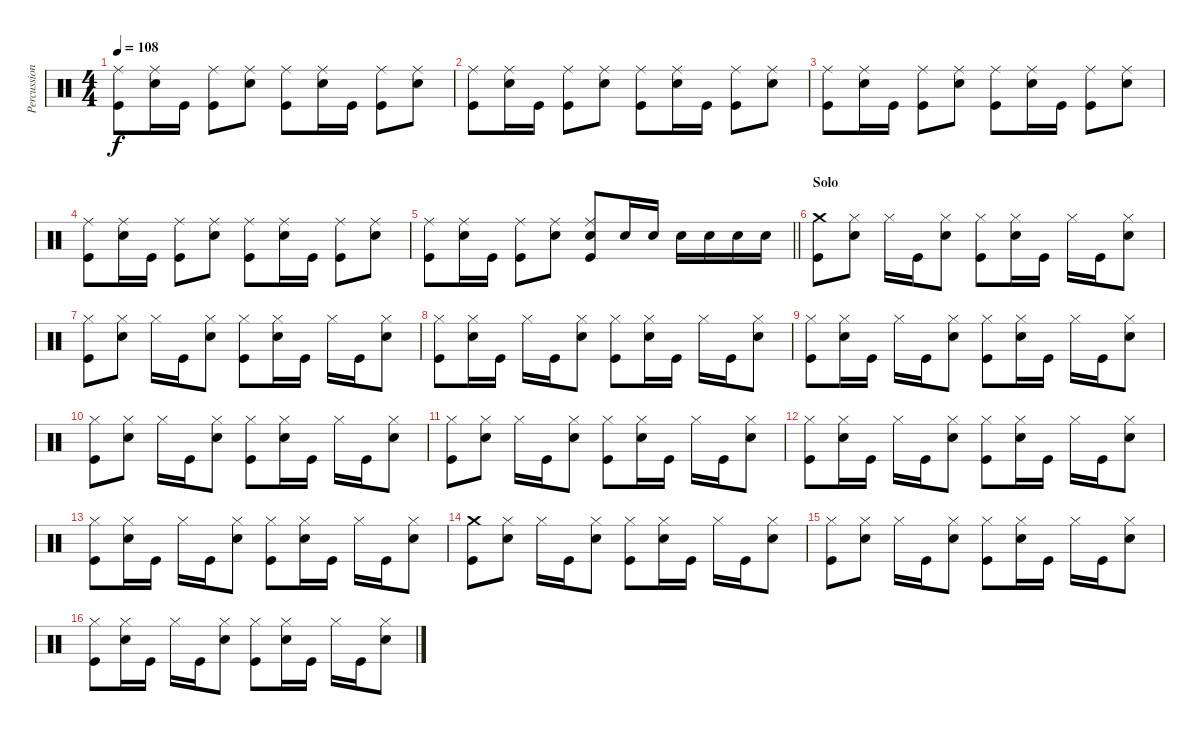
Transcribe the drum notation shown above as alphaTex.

\track ("Percussion" "Percussion") {instrument percussion}
\staff {score}
\articulation defaults
\ts (4 4)
\tempo 108
\clef neutral
\ks c
("Kick (hit)" "Ride (middle)").8{dy f} ("Ride (middle)" "Snare (hit) 2").16 "Kick (hit)".16 ("Kick (hit)" "Ride (middle)").8 ("Ride (middle)" "Snare (hit) 2").8 ("Kick (hit)" "Ride (middle)").8 ("Ride (middle)" "Snare (hit) 2").16 "Kick (hit)".16 ("Kick (hit)" "Ride (middle)").8 ("Ride (middle)" "Snare (hit) 2").8 |
("Kick (hit)" "Ride (middle)").8 ("Ride (middle)" "Snare (hit) 2").16 "Kick (hit)".16 ("Kick (hit)" "Ride (middle)").8 ("Ride (middle)" "Snare (hit) 2").8 ("Kick (hit)" "Ride (middle)").8 ("Ride (middle)" "Snare (hit) 2").16 "Kick (hit)".16 ("Kick (hit)" "Ride (middle)").8 ("Ride (middle)" "Snare (hit) 2").8 |
("Kick (hit)" "Ride (middle)").8 ("Ride (middle)" "Snare (hit) 2").16 "Kick (hit)".16 ("Kick (hit)" "Ride (middle)").8 ("Ride (middle)" "Snare (hit) 2").8 ("Kick (hit)" "Ride (middle)").8 ("Ride (middle)" "Snare (hit) 2").16 "Kick (hit)".16 ("Kick (hit)" "Ride (middle)").8 ("Ride (middle)" "Snare (hit) 2").8 |
("Kick (hit)" "Ride (middle)").8 ("Ride (middle)" "Snare (hit) 2").16 "Kick (hit)".16 ("Kick (hit)" "Ride (middle)").8 ("Ride (middle)" "Snare (hit) 2").8 ("Kick (hit)" "Ride (middle)").8 ("Ride (middle)" "Snare (hit) 2").16 "Kick (hit)".16 ("Kick (hit)" "Ride (middle)").8 ("Ride (middle)" "Snare (hit) 2").8 |
\barLineRight lightlight
("Kick (hit)" "Ride (middle)").8 ("Ride (middle)" "Snare (hit) 2").16 "Kick (hit)".16 ("Kick (hit)" "Ride (middle)").8 ("Ride (middle)" "Snare (hit) 2").8 ("Kick (hit)" "Ride (middle)" "Snare (hit) 2").8 "Snare (hit) 2".16 "Snare (hit) 2".16 "Snare (hit) 2".16 "Snare (hit) 2".16 "Snare (hit) 2".16 "Snare (hit) 2".16 |
\section ("" "Solo")
("Kick (hit)" "Crash medium (hit)").8 ("Hi-Hat (closed)" "Snare (hit) 2").8 "Hi-Hat (closed)".16 "Kick (hit)".16 ("Hi-Hat (closed)" "Snare (hit) 2").8 ("Kick (hit)" "Hi-Hat (closed)").8 ("Hi-Hat (closed)" "Snare (hit) 2").16 "Kick (hit)".16 "Hi-Hat (closed)".16 "Kick (hit)".16 ("Hi-Hat (closed)" "Snare (hit) 2").8 |
("Kick (hit)" "Hi-Hat (closed)").8 ("Hi-Hat (closed)" "Snare (hit) 2").8 "Hi-Hat (closed)".16 "Kick (hit)".16 ("Hi-Hat (closed)" "Snare (hit) 2").8 ("Kick (hit)" "Hi-Hat (closed)").8 ("Hi-Hat (closed)" "Snare (hit) 2").16 "Kick (hit)".16 "Hi-Hat (closed)".16 "Kick (hit)".16 ("Hi-Hat (closed)" "Snare (hit) 2").8 |
("Kick (hit)" "Hi-Hat (closed)").8 ("Hi-Hat (closed)" "Snare (hit) 2").16 "Kick (hit)".16 "Hi-Hat (closed)".16 "Kick (hit)".16 ("Hi-Hat (closed)" "Snare (hit) 2").8 ("Kick (hit)" "Hi-Hat (closed)").8 ("Hi-Hat (closed)" "Snare (hit) 2").16 "Kick (hit)".16 "Hi-Hat (closed)".16 "Kick (hit)".16 ("Hi-Hat (closed)" "Snare (hit) 2").8 |
("Kick (hit)" "Hi-Hat (closed)").8 ("Hi-Hat (closed)" "Snare (hit) 2").16 "Kick (hit)".16 "Hi-Hat (closed)".16 "Kick (hit)".16 ("Hi-Hat (closed)" "Snare (hit) 2").8 ("Kick (hit)" "Hi-Hat (closed)").8 ("Hi-Hat (closed)" "Snare (hit) 2").16 "Kick (hit)".16 "Hi-Hat (closed)".16 "Kick (hit)".16 ("Hi-Hat (closed)" "Snare (hit) 2").8 |
("Kick (hit)" "Hi-Hat (closed)").8 ("Hi-Hat (closed)" "Snare (hit) 2").8 "Hi-Hat (closed)".16 "Kick (hit)".16 ("Hi-Hat (closed)" "Snare (hit) 2").8 ("Kick (hit)" "Hi-Hat (closed)").8 ("Hi-Hat (closed)" "Snare (hit) 2").16 "Kick (hit)".16 "Hi-Hat (closed)".16 "Kick (hit)".16 ("Hi-Hat (closed)" "Snare (hit) 2").8 |
("Kick (hit)" "Hi-Hat (closed)").8 ("Hi-Hat (closed)" "Snare (hit) 2").8 "Hi-Hat (closed)".16 "Kick (hit)".16 ("Hi-Hat (closed)" "Snare (hit) 2").8 ("Kick (hit)" "Hi-Hat (closed)").8 ("Hi-Hat (closed)" "Snare (hit) 2").16 "Kick (hit)".16 "Hi-Hat (closed)".16 "Kick (hit)".16 ("Hi-Hat (closed)" "Snare (hit) 2").8 |
("Kick (hit)" "Hi-Hat (closed)").8 ("Hi-Hat (closed)" "Snare (hit) 2").16 "Kick (hit)".16 "Hi-Hat (closed)".16 "Kick (hit)".16 ("Hi-Hat (closed)" "Snare (hit) 2").8 ("Kick (hit)" "Hi-Hat (closed)").8 ("Hi-Hat (closed)" "Snare (hit) 2").16 "Kick (hit)".16 "Hi-Hat (closed)".16 "Kick (hit)".16 ("Hi-Hat (closed)" "Snare (hit) 2").8 |
("Kick (hit)" "Hi-Hat (closed)").8 ("Hi-Hat (closed)" "Snare (hit) 2").16 "Kick (hit)".16 "Hi-Hat (closed)".16 "Kick (hit)".16 ("Hi-Hat (closed)" "Snare (hit) 2").8 ("Kick (hit)" "Hi-Hat (closed)").8 ("Hi-Hat (closed)" "Snare (hit) 2").16 "Kick (hit)".16 "Hi-Hat (closed)".16 "Kick (hit)".16 ("Hi-Hat (closed)" "Snare (hit) 2").8 |
("Kick (hit)" "Crash medium (hit)").8 ("Hi-Hat (closed)" "Snare (hit) 2").8 "Hi-Hat (closed)".16 "Kick (hit)".16 ("Hi-Hat (closed)" "Snare (hit) 2").8 ("Kick (hit)" "Hi-Hat (closed)").8 ("Hi-Hat (closed)" "Snare (hit) 2").16 "Kick (hit)".16 "Hi-Hat (closed)".16 "Kick (hit)".16 ("Hi-Hat (closed)" "Snare (hit) 2").8 |
("Kick (hit)" "Hi-Hat (closed)").8 ("Hi-Hat (closed)" "Snare (hit) 2").8 "Hi-Hat (closed)".16 "Kick (hit)".16 ("Hi-Hat (closed)" "Snare (hit) 2").8 ("Kick (hit)" "Hi-Hat (closed)").8 ("Hi-Hat (closed)" "Snare (hit) 2").16 "Kick (hit)".16 "Hi-Hat (closed)".16 "Kick (hit)".16 ("Hi-Hat (closed)" "Snare (hit) 2").8 |
("Kick (hit)" "Hi-Hat (closed)").8 ("Hi-Hat (closed)" "Snare (hit) 2").16 "Kick (hit)".16 "Hi-Hat (closed)".16 "Kick (hit)".16 ("Hi-Hat (closed)" "Snare (hit) 2").8 ("Kick (hit)" "Hi-Hat (closed)").8 ("Hi-Hat (closed)" "Snare (hit) 2").16 "Kick (hit)".16 "Hi-Hat (closed)".16 "Kick (hit)".16 ("Hi-Hat (closed)" "Snare (hit) 2").8
